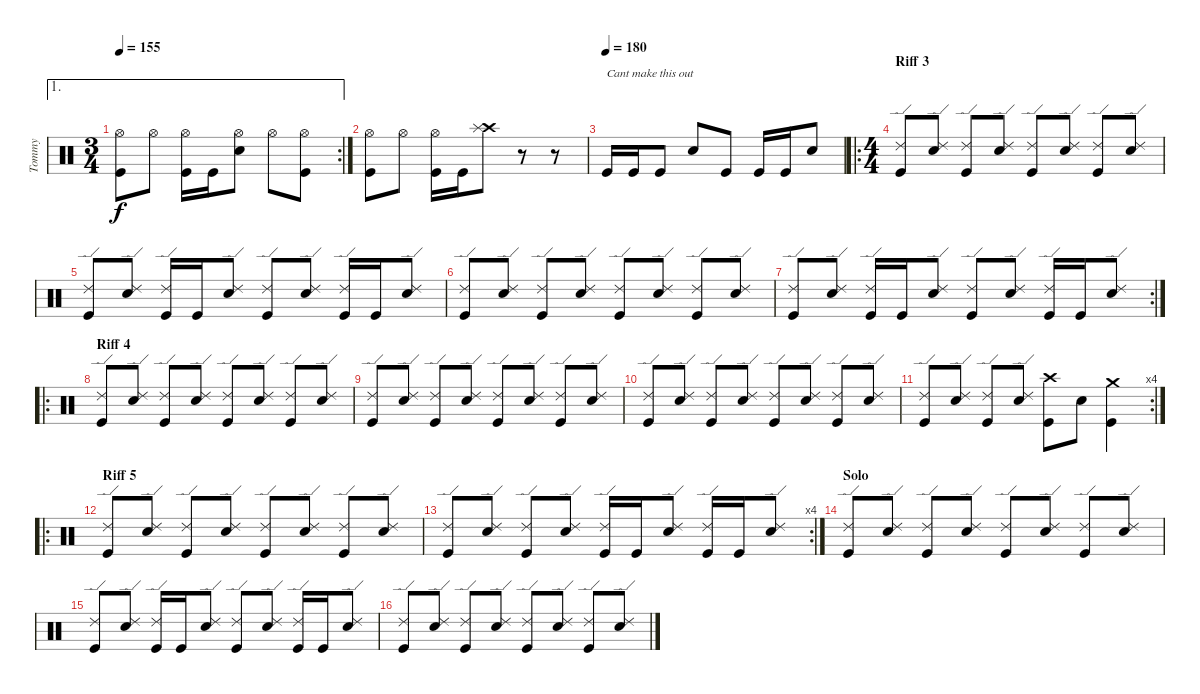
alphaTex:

\track ("Tommy" "Tommy") {instrument percussion}
\staff {score}
\articulation defaults
\ae 1
\rc 2
\ts (3 4)
\tempo 155
\clef neutral
\ks c
("Hi-Hat (open)" "Kick (hit)").8{dy f} "Hi-Hat (open)".8 ("Hi-Hat (open)" "Kick (hit)").16 "Kick (hit)".16 ("Electric Snare (hit)" "Hi-Hat (open)").8 "Hi-Hat (open)".8 ("Hi-Hat (open)" "Kick (hit)").8 |
("Hi-Hat (open)" "Kick (hit)").8 "Hi-Hat (open)".8 ("Hi-Hat (open)" "Kick (hit)").16 "Kick (hit)".16 ("Crash high (hit)" "Splash (hit)").8 r.8 r.8 |
\tempo (180)
"Kick (hit)".16{txt "Cant make this out"} "Kick (hit)".16 "Kick (hit)".8 "Electric Snare (hit)".8 "Kick (hit)".8 "Kick (hit)".16 "Kick (hit)".16 "Electric Snare (hit)".8 |
\ro
\ts (4 4)
\section ("" "Riff 3")
("Ride (edge) 2" "Kick (hit)").8 ("Ride (edge) 2" "Electric Snare (hit)").8 ("Ride (edge) 2" "Kick (hit)").8 ("Ride (edge) 2" "Electric Snare (hit)").8 ("Ride (edge) 2" "Kick (hit)").8 ("Ride (edge) 2" "Electric Snare (hit)").8 ("Ride (edge) 2" "Kick (hit)").8 ("Ride (edge) 2" "Electric Snare (hit)").8 |
("Ride (edge) 2" "Kick (hit)").8 ("Ride (edge) 2" "Electric Snare (hit)").8 ("Ride (edge) 2" "Kick (hit)").16 "Kick (hit)".16 ("Ride (edge) 2" "Electric Snare (hit)").8 ("Ride (edge) 2" "Kick (hit)").8 ("Ride (edge) 2" "Electric Snare (hit)").8 ("Ride (edge) 2" "Kick (hit)").16 "Kick (hit)".16 ("Ride (edge) 2" "Electric Snare (hit)").8 |
("Ride (edge) 2" "Kick (hit)").8 ("Ride (edge) 2" "Electric Snare (hit)").8 ("Ride (edge) 2" "Kick (hit)").8 ("Ride (edge) 2" "Electric Snare (hit)").8 ("Ride (edge) 2" "Kick (hit)").8 ("Ride (edge) 2" "Electric Snare (hit)").8 ("Ride (edge) 2" "Kick (hit)").8 ("Ride (edge) 2" "Electric Snare (hit)").8 |
\rc 2
("Ride (edge) 2" "Kick (hit)").8 ("Ride (edge) 2" "Electric Snare (hit)").8 ("Ride (edge) 2" "Kick (hit)").16 "Kick (hit)".16 ("Ride (edge) 2" "Electric Snare (hit)").8 ("Ride (edge) 2" "Kick (hit)").8 ("Ride (edge) 2" "Electric Snare (hit)").8 ("Ride (edge) 2" "Kick (hit)").16 "Kick (hit)".16 ("Ride (edge) 2" "Electric Snare (hit)").8 |
\ro
\section ("" "Riff 4")
("Ride (edge) 2" "Kick (hit)").8 ("Ride (edge) 2" "Electric Snare (hit)").8 ("Ride (edge) 2" "Kick (hit)").8 ("Ride (edge) 2" "Electric Snare (hit)").8 ("Ride (edge) 2" "Kick (hit)").8 ("Ride (edge) 2" "Electric Snare (hit)").8 ("Ride (edge) 2" "Kick (hit)").8 ("Ride (edge) 2" "Electric Snare (hit)").8 |
("Ride (edge) 2" "Kick (hit)").8 ("Ride (edge) 2" "Electric Snare (hit)").8 ("Ride (edge) 2" "Kick (hit)").8 ("Ride (edge) 2" "Electric Snare (hit)").8 ("Ride (edge) 2" "Kick (hit)").8 ("Ride (edge) 2" "Electric Snare (hit)").8 ("Ride (edge) 2" "Kick (hit)").8 ("Ride (edge) 2" "Electric Snare (hit)").8 |
("Ride (edge) 2" "Kick (hit)").8 ("Ride (edge) 2" "Electric Snare (hit)").8 ("Ride (edge) 2" "Kick (hit)").8 ("Ride (edge) 2" "Electric Snare (hit)").8 ("Ride (edge) 2" "Kick (hit)").8 ("Ride (edge) 2" "Electric Snare (hit)").8 ("Ride (edge) 2" "Kick (hit)").8 ("Ride (edge) 2" "Electric Snare (hit)").8 |
\rc 4
("Ride (edge) 2" "Kick (hit)").8 ("Ride (edge) 2" "Electric Snare (hit)").8 ("Ride (edge) 2" "Kick (hit)").8 ("Ride (edge) 2" "Electric Snare (hit)").8 ("Crash high (hit)" "Kick (hit)").8 "Electric Snare (hit)".8 ("Crash medium (hit)" "Kick (hit)").4 |
\ro
\section ("" "Riff 5")
("Ride (edge) 2" "Kick (hit)").8 ("Ride (edge) 2" "Electric Snare (hit)").8 ("Ride (edge) 2" "Kick (hit)").8 ("Ride (edge) 2" "Electric Snare (hit)").8 ("Ride (edge) 2" "Kick (hit)").8 ("Ride (edge) 2" "Electric Snare (hit)").8 ("Ride (edge) 2" "Kick (hit)").8 ("Ride (edge) 2" "Electric Snare (hit)").8 |
\rc 4
("Ride (edge) 2" "Kick (hit)").8 ("Ride (edge) 2" "Electric Snare (hit)").8 ("Ride (edge) 2" "Kick (hit)").8 ("Ride (edge) 2" "Electric Snare (hit)").8 ("Ride (edge) 2" "Kick (hit)").16 "Kick (hit)".16 ("Ride (edge) 2" "Electric Snare (hit)").8 ("Ride (edge) 2" "Kick (hit)").16 "Kick (hit)".16 ("Ride (edge) 2" "Electric Snare (hit)").8 |
\section ("" "Solo")
("Ride (edge) 2" "Kick (hit)").8 ("Ride (edge) 2" "Electric Snare (hit)").8 ("Ride (edge) 2" "Kick (hit)").8 ("Ride (edge) 2" "Electric Snare (hit)").8 ("Ride (edge) 2" "Kick (hit)").8 ("Ride (edge) 2" "Electric Snare (hit)").8 ("Ride (edge) 2" "Kick (hit)").8 ("Ride (edge) 2" "Electric Snare (hit)").8 |
("Ride (edge) 2" "Kick (hit)").8 ("Ride (edge) 2" "Electric Snare (hit)").8 ("Ride (edge) 2" "Kick (hit)").16 "Kick (hit)".16 ("Ride (edge) 2" "Electric Snare (hit)").8 ("Ride (edge) 2" "Kick (hit)").8 ("Ride (edge) 2" "Electric Snare (hit)").8 ("Ride (edge) 2" "Kick (hit)").16 "Kick (hit)".16 ("Ride (edge) 2" "Electric Snare (hit)").8 |
("Ride (edge) 2" "Kick (hit)").8 ("Ride (edge) 2" "Electric Snare (hit)").8 ("Ride (edge) 2" "Kick (hit)").8 ("Ride (edge) 2" "Electric Snare (hit)").8 ("Ride (edge) 2" "Kick (hit)").8 ("Ride (edge) 2" "Electric Snare (hit)").8 ("Ride (edge) 2" "Kick (hit)").8 ("Ride (edge) 2" "Electric Snare (hit)").8
